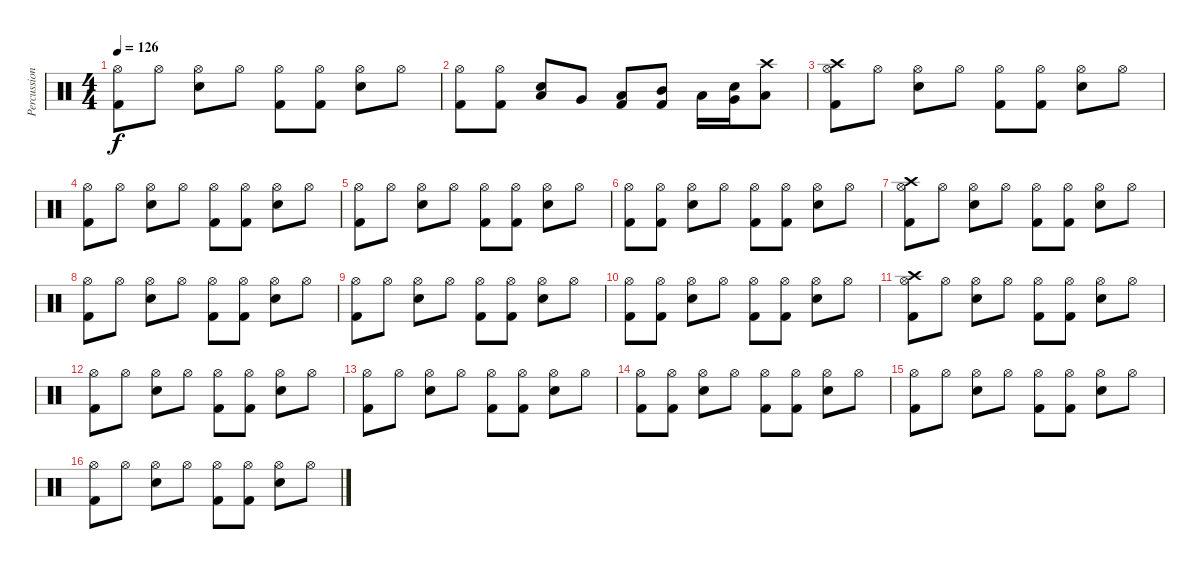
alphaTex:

\track ("Percussions" "Percussion") {instrument percussion}
\staff {score}
\articulation defaults
\ts (4 4)
\tempo 126
\clef neutral
\ks c
("Hi-Hat (open)" "Kick (hit) 2").8{dy f} "Hi-Hat (open)".8 ("Hi-Hat (open)" "Electric Snare (hit)").8 "Hi-Hat (open)".8 ("Hi-Hat (open)" "Kick (hit) 2").8 ("Hi-Hat (open)" "Kick (hit) 2").8 ("Hi-Hat (open)" "Electric Snare (hit)").8 "Hi-Hat (open)".8 |
("Hi-Hat (open)" "Kick (hit) 2").8 ("Hi-Hat (open)" "Kick (hit) 2").8 ("Low Floor Tom (hit)" "Electric Snare (hit)").8 "Very Low Tom (hit)".8 ("Low Tom (hit)" "Kick (hit) 2").8 ("Mid Tom (hit)" "Kick (hit) 2").8 "Low Tom (hit)".16 ("Very Low Tom (hit)" "Electric Snare (hit)").16 ("Crash high (hit)" "Low Floor Tom (hit)").8 |
("Hi-Hat (open)" "Crash high (hit)" "Kick (hit) 2").8 "Hi-Hat (open)".8 ("Hi-Hat (open)" "Electric Snare (hit)").8 "Hi-Hat (open)".8 ("Hi-Hat (open)" "Kick (hit) 2").8 ("Hi-Hat (open)" "Kick (hit) 2").8 ("Hi-Hat (open)" "Electric Snare (hit)").8 "Hi-Hat (open)".8 |
("Hi-Hat (open)" "Kick (hit) 2").8 "Hi-Hat (open)".8 ("Hi-Hat (open)" "Electric Snare (hit)").8 "Hi-Hat (open)".8 ("Hi-Hat (open)" "Kick (hit) 2").8 ("Hi-Hat (open)" "Kick (hit) 2").8 ("Hi-Hat (open)" "Electric Snare (hit)").8 "Hi-Hat (open)".8 |
("Hi-Hat (open)" "Kick (hit) 2").8 "Hi-Hat (open)".8 ("Hi-Hat (open)" "Electric Snare (hit)").8 "Hi-Hat (open)".8 ("Hi-Hat (open)" "Kick (hit) 2").8 ("Hi-Hat (open)" "Kick (hit) 2").8 ("Hi-Hat (open)" "Electric Snare (hit)").8 "Hi-Hat (open)".8 |
("Hi-Hat (open)" "Kick (hit) 2").8 ("Hi-Hat (open)" "Kick (hit) 2").8 ("Hi-Hat (open)" "Electric Snare (hit)").8 "Hi-Hat (open)".8 ("Hi-Hat (open)" "Kick (hit) 2").8 ("Hi-Hat (open)" "Kick (hit) 2").8 ("Hi-Hat (open)" "Electric Snare (hit)").8 "Hi-Hat (open)".8 |
("Hi-Hat (open)" "Crash high (hit)" "Kick (hit) 2").8 "Hi-Hat (open)".8 ("Hi-Hat (open)" "Electric Snare (hit)").8 "Hi-Hat (open)".8 ("Hi-Hat (open)" "Kick (hit) 2").8 ("Hi-Hat (open)" "Kick (hit) 2").8 ("Hi-Hat (open)" "Electric Snare (hit)").8 "Hi-Hat (open)".8 |
("Hi-Hat (open)" "Kick (hit) 2").8 "Hi-Hat (open)".8 ("Hi-Hat (open)" "Electric Snare (hit)").8 "Hi-Hat (open)".8 ("Hi-Hat (open)" "Kick (hit) 2").8 ("Hi-Hat (open)" "Kick (hit) 2").8 ("Hi-Hat (open)" "Electric Snare (hit)").8 "Hi-Hat (open)".8 |
("Hi-Hat (open)" "Kick (hit) 2").8 "Hi-Hat (open)".8 ("Hi-Hat (open)" "Electric Snare (hit)").8 "Hi-Hat (open)".8 ("Hi-Hat (open)" "Kick (hit) 2").8 ("Hi-Hat (open)" "Kick (hit) 2").8 ("Hi-Hat (open)" "Electric Snare (hit)").8 "Hi-Hat (open)".8 |
("Hi-Hat (open)" "Kick (hit) 2").8 ("Hi-Hat (open)" "Kick (hit) 2").8 ("Hi-Hat (open)" "Electric Snare (hit)").8 "Hi-Hat (open)".8 ("Hi-Hat (open)" "Kick (hit) 2").8 ("Hi-Hat (open)" "Kick (hit) 2").8 ("Hi-Hat (open)" "Electric Snare (hit)").8 "Hi-Hat (open)".8 |
("Hi-Hat (open)" "Crash high (hit)" "Kick (hit) 2").8 "Hi-Hat (open)".8 ("Hi-Hat (open)" "Electric Snare (hit)").8 "Hi-Hat (open)".8 ("Hi-Hat (open)" "Kick (hit) 2").8 ("Hi-Hat (open)" "Kick (hit) 2").8 ("Hi-Hat (open)" "Electric Snare (hit)").8 "Hi-Hat (open)".8 |
("Hi-Hat (open)" "Kick (hit) 2").8 "Hi-Hat (open)".8 ("Hi-Hat (open)" "Electric Snare (hit)").8 "Hi-Hat (open)".8 ("Hi-Hat (open)" "Kick (hit) 2").8 ("Hi-Hat (open)" "Kick (hit) 2").8 ("Hi-Hat (open)" "Electric Snare (hit)").8 "Hi-Hat (open)".8 |
("Hi-Hat (open)" "Kick (hit) 2").8 "Hi-Hat (open)".8 ("Hi-Hat (open)" "Electric Snare (hit)").8 "Hi-Hat (open)".8 ("Hi-Hat (open)" "Kick (hit) 2").8 ("Hi-Hat (open)" "Kick (hit) 2").8 ("Hi-Hat (open)" "Electric Snare (hit)").8 "Hi-Hat (open)".8 |
("Hi-Hat (open)" "Kick (hit) 2").8 ("Hi-Hat (open)" "Kick (hit) 2").8 ("Hi-Hat (open)" "Electric Snare (hit)").8 "Hi-Hat (open)".8 ("Hi-Hat (open)" "Kick (hit) 2").8 ("Hi-Hat (open)" "Kick (hit) 2").8 ("Hi-Hat (open)" "Electric Snare (hit)").8 "Hi-Hat (open)".8 |
("Hi-Hat (open)" "Kick (hit) 2").8 "Hi-Hat (open)".8 ("Hi-Hat (open)" "Electric Snare (hit)").8 "Hi-Hat (open)".8 ("Hi-Hat (open)" "Kick (hit) 2").8 ("Hi-Hat (open)" "Kick (hit) 2").8 ("Hi-Hat (open)" "Electric Snare (hit)").8 "Hi-Hat (open)".8 |
("Hi-Hat (open)" "Kick (hit) 2").8 "Hi-Hat (open)".8 ("Hi-Hat (open)" "Electric Snare (hit)").8 "Hi-Hat (open)".8 ("Hi-Hat (open)" "Kick (hit) 2").8 ("Hi-Hat (open)" "Kick (hit) 2").8 ("Hi-Hat (open)" "Electric Snare (hit)").8 "Hi-Hat (open)".8
